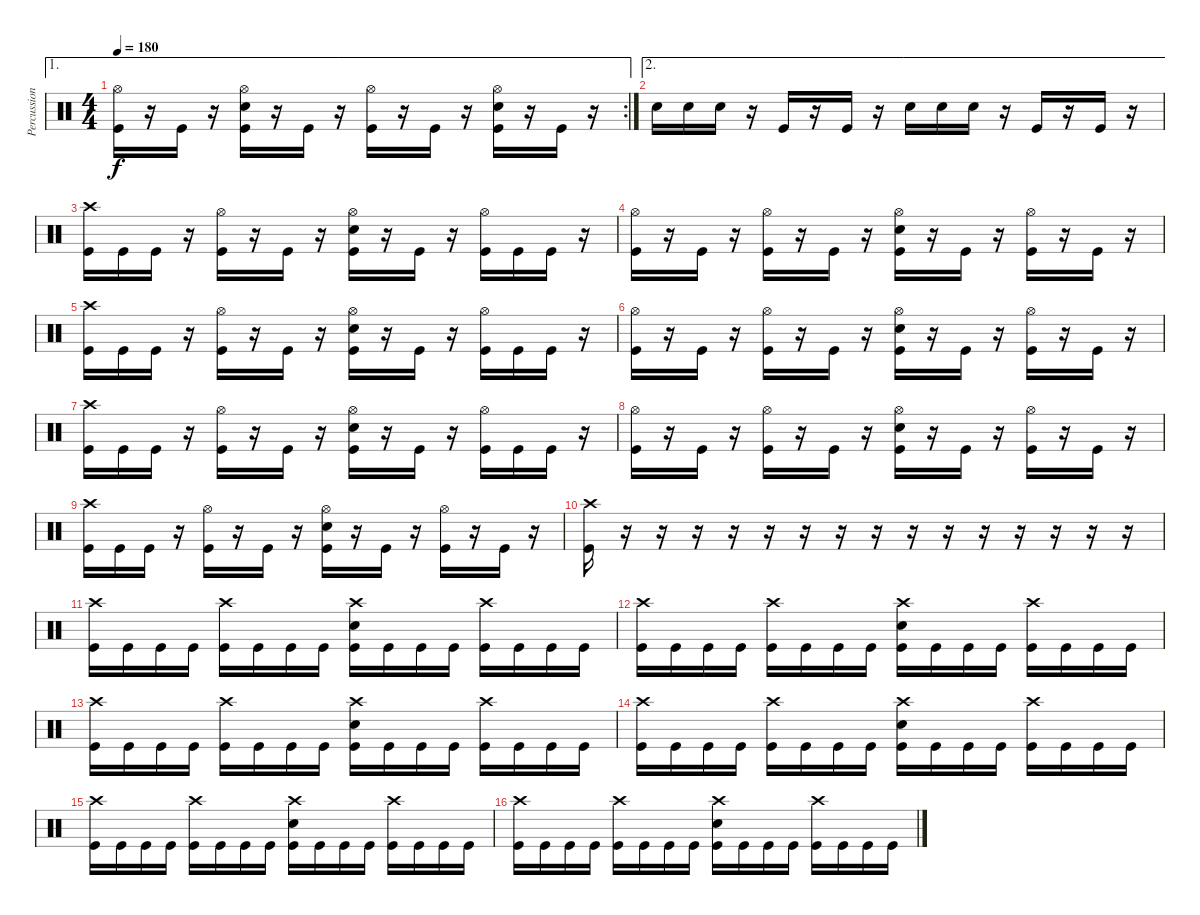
\track ("Percussion" "Percussion") {instrument percussion}
\staff {score}
\articulation defaults
\ae 1
\rc 2
\ts (4 4)
\tempo 180
\clef neutral
\ks c
("Hi-Hat (open)" "Kick (hit)").16{dy f} r.16 "Kick (hit)".16 r.16 ("Hi-Hat (open)" "Electric Snare (hit)" "Kick (hit)").16 r.16 "Kick (hit)".16 r.16 ("Hi-Hat (open)" "Kick (hit)").16 r.16 "Kick (hit)".16 r.16 ("Hi-Hat (open)" "Electric Snare (hit)" "Kick (hit)").16 r.16 "Kick (hit)".16 r.16 |
\ae 2 "Electric Snare (hit)".16 "Electric Snare (hit)".16 "Electric Snare (hit)".16
r.16 "Kick (hit)".16 r.16 "Kick (hit)".16 r.16 "Electric Snare (hit)".16 "Electric Snare (hit)".16 "Electric Snare (hit)".16 r.16 "Kick (hit)".16 r.16 "Kick (hit)".16 r.16 |
("Crash high (hit)" "Kick (hit)").16 "Kick (hit)".16 "Kick (hit)".16 r.16 ("Hi-Hat (open)" "Kick (hit)").16 r.16 "Kick (hit)".16 r.16 ("Hi-Hat (open)" "Electric Snare (hit)" "Kick (hit)").16 r.16 "Kick (hit)".16 r.16 ("Hi-Hat (open)" "Kick (hit)").16 "Kick (hit)".16 "Kick (hit)".16 r.16 |
("Hi-Hat (open)" "Kick (hit)").16 r.16 "Kick (hit)".16 r.16 ("Hi-Hat (open)" "Kick (hit)").16 r.16 "Kick (hit)".16 r.16 ("Hi-Hat (open)" "Electric Snare (hit)" "Kick (hit)").16 r.16 "Kick (hit)".16 r.16 ("Hi-Hat (open)" "Kick (hit)").16 r.16 "Kick (hit)".16 r.16 |
("Crash high (hit)" "Kick (hit)").16 "Kick (hit)".16 "Kick (hit)".16 r.16 ("Hi-Hat (open)" "Kick (hit)").16 r.16 "Kick (hit)".16 r.16 ("Hi-Hat (open)" "Electric Snare (hit)" "Kick (hit)").16 r.16 "Kick (hit)".16 r.16 ("Hi-Hat (open)" "Kick (hit)").16 "Kick (hit)".16 "Kick (hit)".16 r.16 |
("Hi-Hat (open)" "Kick (hit)").16 r.16 "Kick (hit)".16 r.16 ("Hi-Hat (open)" "Kick (hit)").16 r.16 "Kick (hit)".16 r.16 ("Hi-Hat (open)" "Electric Snare (hit)" "Kick (hit)").16 r.16 "Kick (hit)".16 r.16 ("Hi-Hat (open)" "Kick (hit)").16 r.16 "Kick (hit)".16 r.16 |
("Crash high (hit)" "Kick (hit)").16 "Kick (hit)".16 "Kick (hit)".16 r.16 ("Hi-Hat (open)" "Kick (hit)").16 r.16 "Kick (hit)".16 r.16 ("Hi-Hat (open)" "Electric Snare (hit)" "Kick (hit)").16 r.16 "Kick (hit)".16 r.16 ("Hi-Hat (open)" "Kick (hit)").16 "Kick (hit)".16 "Kick (hit)".16 r.16 |
("Hi-Hat (open)" "Kick (hit)").16 r.16 "Kick (hit)".16 r.16 ("Hi-Hat (open)" "Kick (hit)").16 r.16 "Kick (hit)".16 r.16 ("Hi-Hat (open)" "Electric Snare (hit)" "Kick (hit)").16 r.16 "Kick (hit)".16 r.16 ("Hi-Hat (open)" "Kick (hit)").16 r.16 "Kick (hit)".16 r.16 |
("Crash high (hit)" "Kick (hit)").16 "Kick (hit)".16 "Kick (hit)".16 r.16 ("Hi-Hat (open)" "Kick (hit)").16 r.16 "Kick (hit)".16 r.16 ("Hi-Hat (open)" "Electric Snare (hit)" "Kick (hit)").16 r.16 "Kick (hit)".16 r.16 ("Hi-Hat (open)" "Kick (hit)").16 r.16 "Kick (hit)".16 r.16 |
("Crash high (hit)" "Kick (hit)").16 r.16 r.16 r.16 r.16 r.16 r.16 r.16 r.16 r.16 r.16 r.16 r.16 r.16 r.16 r.16 |
("Crash high (hit)" "Kick (hit)").16 "Kick (hit)".16 "Kick (hit)".16 "Kick (hit)".16 ("Crash high (hit)" "Kick (hit)").16 "Kick (hit)".16 "Kick (hit)".16 "Kick (hit)".16 ("Crash high (hit)" "Electric Snare (hit)" "Kick (hit)").16 "Kick (hit)".16 "Kick (hit)".16 "Kick (hit)".16 ("Crash high (hit)" "Kick (hit)").16 "Kick (hit)".16 "Kick (hit)".16 "Kick (hit)".16 |
("Crash high (hit)" "Kick (hit)").16 "Kick (hit)".16 "Kick (hit)".16 "Kick (hit)".16 ("Crash high (hit)" "Kick (hit)").16 "Kick (hit)".16 "Kick (hit)".16 "Kick (hit)".16 ("Crash high (hit)" "Electric Snare (hit)" "Kick (hit)").16 "Kick (hit)".16 "Kick (hit)".16 "Kick (hit)".16 ("Crash high (hit)" "Kick (hit)").16 "Kick (hit)".16 "Kick (hit)".16 "Kick (hit)".16 |
("Crash high (hit)" "Kick (hit)").16 "Kick (hit)".16 "Kick (hit)".16 "Kick (hit)".16 ("Crash high (hit)" "Kick (hit)").16 "Kick (hit)".16 "Kick (hit)".16 "Kick (hit)".16 ("Crash high (hit)" "Electric Snare (hit)" "Kick (hit)").16 "Kick (hit)".16 "Kick (hit)".16 "Kick (hit)".16 ("Crash high (hit)" "Kick (hit)").16 "Kick (hit)".16 "Kick (hit)".16 "Kick (hit)".16 |
("Crash high (hit)" "Kick (hit)").16 "Kick (hit)".16 "Kick (hit)".16 "Kick (hit)".16 ("Crash high (hit)" "Kick (hit)").16 "Kick (hit)".16 "Kick (hit)".16 "Kick (hit)".16 ("Crash high (hit)" "Electric Snare (hit)" "Kick (hit)").16 "Kick (hit)".16 "Kick (hit)".16 "Kick (hit)".16 ("Crash high (hit)" "Kick (hit)").16 "Kick (hit)".16 "Kick (hit)".16 "Kick (hit)".16 |
("Crash high (hit)" "Kick (hit)").16 "Kick (hit)".16 "Kick (hit)".16 "Kick (hit)".16 ("Crash high (hit)" "Kick (hit)").16 "Kick (hit)".16 "Kick (hit)".16 "Kick (hit)".16 ("Crash high (hit)" "Electric Snare (hit)" "Kick (hit)").16 "Kick (hit)".16 "Kick (hit)".16 "Kick (hit)".16 ("Crash high (hit)" "Kick (hit)").16 "Kick (hit)".16 "Kick (hit)".16 "Kick (hit)".16 |
("Crash high (hit)" "Kick (hit)").16 "Kick (hit)".16 "Kick (hit)".16 "Kick (hit)".16 ("Crash high (hit)" "Kick (hit)").16 "Kick (hit)".16 "Kick (hit)".16 "Kick (hit)".16 ("Crash high (hit)" "Electric Snare (hit)" "Kick (hit)").16 "Kick (hit)".16 "Kick (hit)".16 "Kick (hit)".16 ("Crash high (hit)" "Kick (hit)").16 "Kick (hit)".16 "Kick (hit)".16 "Kick (hit)".16
